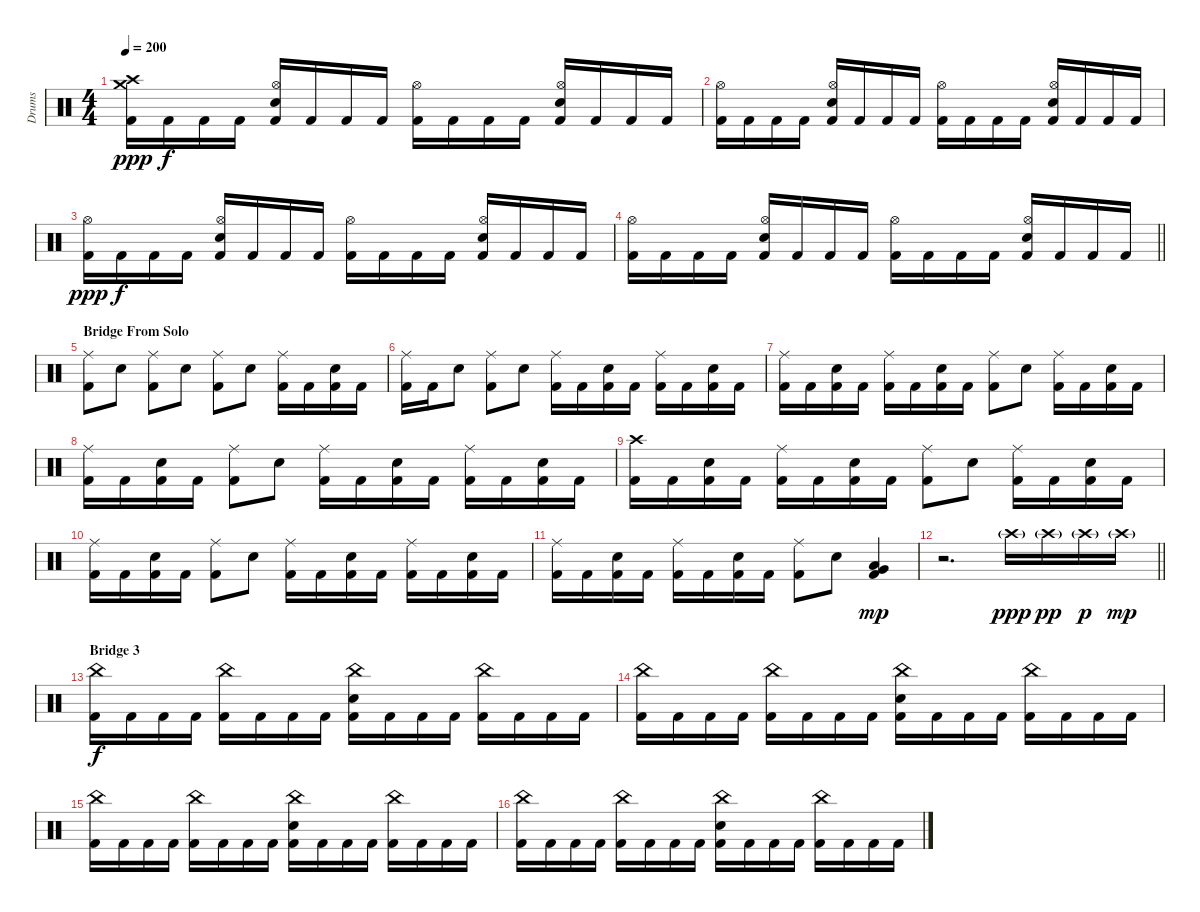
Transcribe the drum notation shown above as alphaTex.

\track ("Drums" "Drums") {instrument percussion}
\staff {score}
\articulation defaults
\ts (4 4)
\tempo 200
\clef neutral
\ks c
("Crash high (hit)" "Crash medium (hit)" "Kick (hit) 2").16{dy ppp} "Kick (hit) 2".16{dy f} "Kick (hit) 2".16 "Kick (hit) 2".16 ("Hi-Hat (open)" "Electric Snare (hit)" "Kick (hit) 2").16 "Kick (hit) 2".16 "Kick (hit) 2".16 "Kick (hit) 2".16 ("Hi-Hat (open)" "Kick (hit) 2").16 "Kick (hit) 2".16 "Kick (hit) 2".16 "Kick (hit) 2".16 ("Hi-Hat (open)" "Electric Snare (hit)" "Kick (hit) 2").16 "Kick (hit) 2".16 "Kick (hit) 2".16 "Kick (hit) 2".16 |
("Hi-Hat (open)" "Kick (hit) 2").16 "Kick (hit) 2".16 "Kick (hit) 2".16 "Kick (hit) 2".16 ("Hi-Hat (open)" "Electric Snare (hit)" "Kick (hit) 2").16 "Kick (hit) 2".16 "Kick (hit) 2".16 "Kick (hit) 2".16 ("Hi-Hat (open)" "Kick (hit) 2").16 "Kick (hit) 2".16 "Kick (hit) 2".16 "Kick (hit) 2".16 ("Hi-Hat (open)" "Electric Snare (hit)" "Kick (hit) 2").16 "Kick (hit) 2".16 "Kick (hit) 2".16 "Kick (hit) 2".16 |
("Hi-Hat (open)" "Kick (hit) 2").16{dy ppp} "Kick (hit) 2".16{dy f} "Kick (hit) 2".16 "Kick (hit) 2".16 ("Hi-Hat (open)" "Electric Snare (hit)" "Kick (hit) 2").16 "Kick (hit) 2".16 "Kick (hit) 2".16 "Kick (hit) 2".16 ("Hi-Hat (open)" "Kick (hit) 2").16 "Kick (hit) 2".16 "Kick (hit) 2".16 "Kick (hit) 2".16 ("Hi-Hat (open)" "Electric Snare (hit)" "Kick (hit) 2").16 "Kick (hit) 2".16 "Kick (hit) 2".16 "Kick (hit) 2".16 |
\barLineRight lightlight
("Hi-Hat (open)" "Kick (hit) 2").16 "Kick (hit) 2".16 "Kick (hit) 2".16 "Kick (hit) 2".16 ("Hi-Hat (open)" "Electric Snare (hit)" "Kick (hit) 2").16 "Kick (hit) 2".16 "Kick (hit) 2".16 "Kick (hit) 2".16 ("Hi-Hat (open)" "Kick (hit) 2").16 "Kick (hit) 2".16 "Kick (hit) 2".16 "Kick (hit) 2".16 ("Hi-Hat (open)" "Electric Snare (hit)" "Kick (hit) 2").16 "Kick (hit) 2".16 "Kick (hit) 2".16 "Kick (hit) 2".16 |
\section ("" "Bridge From Solo")
("Ride (middle)" "Kick (hit) 2").8 "Electric Snare (hit)".8 ("Ride (middle)" "Kick (hit) 2").8 "Electric Snare (hit)".8 ("Ride (middle)" "Kick (hit) 2").8 "Electric Snare (hit)".8 ("Ride (middle)" "Kick (hit) 2").16 "Kick (hit) 2".16 ("Electric Snare (hit)" "Kick (hit) 2").16 "Kick (hit) 2".16 |
("Ride (middle)" "Kick (hit) 2").16 "Kick (hit) 2".16 "Electric Snare (hit)".8 ("Ride (middle)" "Kick (hit) 2").8 "Electric Snare (hit)".8 ("Ride (middle)" "Kick (hit) 2").16 "Kick (hit) 2".16 ("Electric Snare (hit)" "Kick (hit) 2").16 "Kick (hit) 2".16 ("Ride (middle)" "Kick (hit) 2").16 "Kick (hit) 2".16 ("Electric Snare (hit)" "Kick (hit) 2").16 "Kick (hit) 2".16 |
("Ride (middle)" "Kick (hit) 2").16 "Kick (hit) 2".16 ("Electric Snare (hit)" "Kick (hit) 2").16 "Kick (hit) 2".16 ("Ride (middle)" "Kick (hit) 2").16 "Kick (hit) 2".16 ("Electric Snare (hit)" "Kick (hit) 2").16 "Kick (hit) 2".16 ("Ride (middle)" "Kick (hit) 2").8 "Electric Snare (hit)".8 ("Ride (middle)" "Kick (hit) 2").16 "Kick (hit) 2".16 ("Electric Snare (hit)" "Kick (hit) 2").16 "Kick (hit) 2".16 |
("Ride (middle)" "Kick (hit) 2").16 "Kick (hit) 2".16 ("Electric Snare (hit)" "Kick (hit) 2").16 "Kick (hit) 2".16 ("Ride (middle)" "Kick (hit) 2").8 "Electric Snare (hit)".8 ("Ride (middle)" "Kick (hit) 2").16 "Kick (hit) 2".16 ("Electric Snare (hit)" "Kick (hit) 2").16 "Kick (hit) 2".16 ("Ride (middle)" "Kick (hit) 2").16 "Kick (hit) 2".16 ("Electric Snare (hit)" "Kick (hit) 2").16 "Kick (hit) 2".16 |
("Crash high (hit)" "Kick (hit) 2").16 "Kick (hit) 2".16 ("Electric Snare (hit)" "Kick (hit) 2").16 "Kick (hit) 2".16 ("Ride (middle)" "Kick (hit) 2").16 "Kick (hit) 2".16 ("Electric Snare (hit)" "Kick (hit) 2").16 "Kick (hit) 2".16 ("Ride (middle)" "Kick (hit) 2").8 "Electric Snare (hit)".8 ("Ride (middle)" "Kick (hit) 2").16 "Kick (hit) 2".16 ("Electric Snare (hit)" "Kick (hit) 2").16 "Kick (hit) 2".16 |
("Ride (middle)" "Kick (hit) 2").16 "Kick (hit) 2".16 ("Electric Snare (hit)" "Kick (hit) 2").16 "Kick (hit) 2".16 ("Ride (middle)" "Kick (hit) 2").8 "Electric Snare (hit)".8 ("Ride (middle)" "Kick (hit) 2").16 "Kick (hit) 2".16 ("Electric Snare (hit)" "Kick (hit) 2").16 "Kick (hit) 2".16 ("Ride (middle)" "Kick (hit) 2").16 "Kick (hit) 2".16 ("Electric Snare (hit)" "Kick (hit) 2").16 "Kick (hit) 2".16 |
("Ride (middle)" "Kick (hit) 2").16 "Kick (hit) 2".16 ("Electric Snare (hit)" "Kick (hit) 2").16 "Kick (hit) 2".16 ("Ride (middle)" "Kick (hit) 2").16 "Kick (hit) 2".16 ("Electric Snare (hit)" "Kick (hit) 2").16 "Kick (hit) 2".16 ("Ride (middle)" "Kick (hit) 2").8 "Electric Snare (hit)".8 ("Very Low Tom (hit)" "Low Floor Tom (hit)" "Kick (hit) 2").4{dy mp} |
\barLineRight lightlight
r.2{d} "Crash high (hit)"{g}.16{dy ppp} "Crash high (hit)"{g}.16{dy pp} "Crash high (hit)"{g}.16{dy p} "Crash high (hit)"{g}.16{dy mp} |
\section ("" "Bridge 3")
("China (hit)" "Kick (hit) 2").16{dy f} "Kick (hit) 2".16 "Kick (hit) 2".16 "Kick (hit) 2".16 ("China (hit)" "Kick (hit) 2").16 "Kick (hit) 2".16 "Kick (hit) 2".16 "Kick (hit) 2".16 ("China (hit)" "Electric Snare (hit)" "Kick (hit) 2").16 "Kick (hit) 2".16 "Kick (hit) 2".16 "Kick (hit) 2".16 ("China (hit)" "Kick (hit) 2").16 "Kick (hit) 2".16 "Kick (hit) 2".16 "Kick (hit) 2".16 |
("China (hit)" "Kick (hit) 2").16 "Kick (hit) 2".16 "Kick (hit) 2".16 "Kick (hit) 2".16 ("China (hit)" "Kick (hit) 2").16 "Kick (hit) 2".16 "Kick (hit) 2".16 "Kick (hit) 2".16 ("China (hit)" "Electric Snare (hit)" "Kick (hit) 2").16 "Kick (hit) 2".16 "Kick (hit) 2".16 "Kick (hit) 2".16 ("China (hit)" "Kick (hit) 2").16 "Kick (hit) 2".16 "Kick (hit) 2".16 "Kick (hit) 2".16 |
("China (hit)" "Kick (hit) 2").16 "Kick (hit) 2".16 "Kick (hit) 2".16 "Kick (hit) 2".16 ("China (hit)" "Kick (hit) 2").16 "Kick (hit) 2".16 "Kick (hit) 2".16 "Kick (hit) 2".16 ("China (hit)" "Electric Snare (hit)" "Kick (hit) 2").16 "Kick (hit) 2".16 "Kick (hit) 2".16 "Kick (hit) 2".16 ("China (hit)" "Kick (hit) 2").16 "Kick (hit) 2".16 "Kick (hit) 2".16 "Kick (hit) 2".16 |
("China (hit)" "Kick (hit) 2").16 "Kick (hit) 2".16 "Kick (hit) 2".16 "Kick (hit) 2".16 ("China (hit)" "Kick (hit) 2").16 "Kick (hit) 2".16 "Kick (hit) 2".16 "Kick (hit) 2".16 ("China (hit)" "Electric Snare (hit)" "Kick (hit) 2").16 "Kick (hit) 2".16 "Kick (hit) 2".16 "Kick (hit) 2".16 ("China (hit)" "Kick (hit) 2").16 "Kick (hit) 2".16 "Kick (hit) 2".16 "Kick (hit) 2".16
